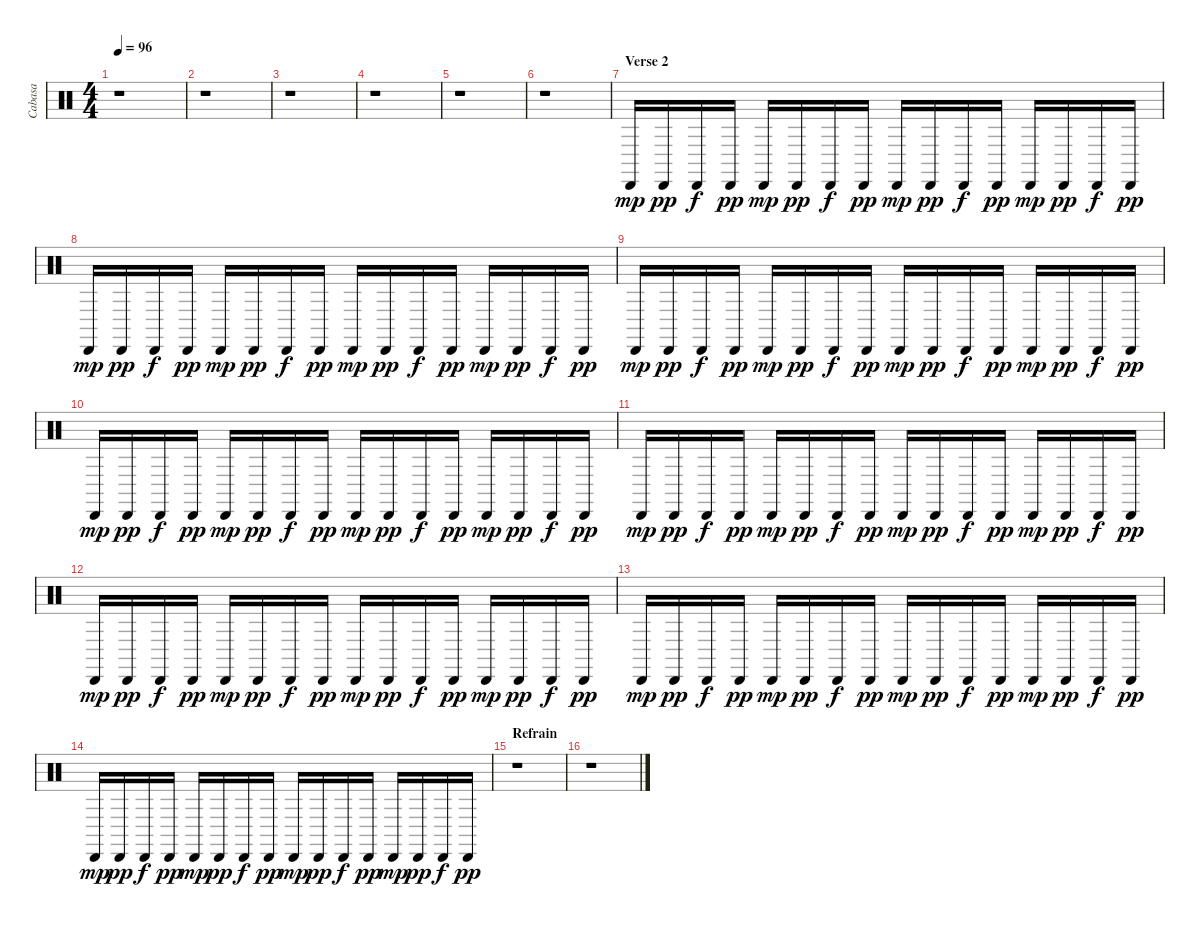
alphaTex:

\track ("Cabasa" "Cabasa") {instrument percussion}
\staff {score}
\articulation defaults
\ts (4 4)
\tempo 96
\clef neutral
\ks c
r.1{dy pp} |
r.1 |
r.1 |
r.1 |
r.1 |
r.1 |
\section ("" "Verse 2")
"Cabasa (hit)".16{dy mp} "Cabasa (hit)".16{dy pp} "Cabasa (hit)".16{dy f} "Cabasa (hit)".16{dy pp} "Cabasa (hit)".16{dy mp} "Cabasa (hit)".16{dy pp} "Cabasa (hit)".16{dy f} "Cabasa (hit)".16{dy pp} "Cabasa (hit)".16{dy mp} "Cabasa (hit)".16{dy pp} "Cabasa (hit)".16{dy f} "Cabasa (hit)".16{dy pp} "Cabasa (hit)".16{dy mp} "Cabasa (hit)".16{dy pp} "Cabasa (hit)".16{dy f} "Cabasa (hit)".16{dy pp} |
"Cabasa (hit)".16{dy mp} "Cabasa (hit)".16{dy pp} "Cabasa (hit)".16{dy f} "Cabasa (hit)".16{dy pp} "Cabasa (hit)".16{dy mp} "Cabasa (hit)".16{dy pp} "Cabasa (hit)".16{dy f} "Cabasa (hit)".16{dy pp} "Cabasa (hit)".16{dy mp} "Cabasa (hit)".16{dy pp} "Cabasa (hit)".16{dy f} "Cabasa (hit)".16{dy pp} "Cabasa (hit)".16{dy mp} "Cabasa (hit)".16{dy pp} "Cabasa (hit)".16{dy f} "Cabasa (hit)".16{dy pp} |
"Cabasa (hit)".16{dy mp} "Cabasa (hit)".16{dy pp} "Cabasa (hit)".16{dy f} "Cabasa (hit)".16{dy pp} "Cabasa (hit)".16{dy mp} "Cabasa (hit)".16{dy pp} "Cabasa (hit)".16{dy f} "Cabasa (hit)".16{dy pp} "Cabasa (hit)".16{dy mp} "Cabasa (hit)".16{dy pp} "Cabasa (hit)".16{dy f} "Cabasa (hit)".16{dy pp} "Cabasa (hit)".16{dy mp} "Cabasa (hit)".16{dy pp} "Cabasa (hit)".16{dy f} "Cabasa (hit)".16{dy pp} |
"Cabasa (hit)".16{dy mp} "Cabasa (hit)".16{dy pp} "Cabasa (hit)".16{dy f} "Cabasa (hit)".16{dy pp} "Cabasa (hit)".16{dy mp} "Cabasa (hit)".16{dy pp} "Cabasa (hit)".16{dy f} "Cabasa (hit)".16{dy pp} "Cabasa (hit)".16{dy mp} "Cabasa (hit)".16{dy pp} "Cabasa (hit)".16{dy f} "Cabasa (hit)".16{dy pp} "Cabasa (hit)".16{dy mp} "Cabasa (hit)".16{dy pp} "Cabasa (hit)".16{dy f} "Cabasa (hit)".16{dy pp} |
"Cabasa (hit)".16{dy mp} "Cabasa (hit)".16{dy pp} "Cabasa (hit)".16{dy f} "Cabasa (hit)".16{dy pp} "Cabasa (hit)".16{dy mp} "Cabasa (hit)".16{dy pp} "Cabasa (hit)".16{dy f} "Cabasa (hit)".16{dy pp} "Cabasa (hit)".16{dy mp} "Cabasa (hit)".16{dy pp} "Cabasa (hit)".16{dy f} "Cabasa (hit)".16{dy pp} "Cabasa (hit)".16{dy mp} "Cabasa (hit)".16{dy pp} "Cabasa (hit)".16{dy f} "Cabasa (hit)".16{dy pp} |
"Cabasa (hit)".16{dy mp} "Cabasa (hit)".16{dy pp} "Cabasa (hit)".16{dy f} "Cabasa (hit)".16{dy pp} "Cabasa (hit)".16{dy mp} "Cabasa (hit)".16{dy pp} "Cabasa (hit)".16{dy f} "Cabasa (hit)".16{dy pp} "Cabasa (hit)".16{dy mp} "Cabasa (hit)".16{dy pp} "Cabasa (hit)".16{dy f} "Cabasa (hit)".16{dy pp} "Cabasa (hit)".16{dy mp} "Cabasa (hit)".16{dy pp} "Cabasa (hit)".16{dy f} "Cabasa (hit)".16{dy pp} |
"Cabasa (hit)".16{dy mp} "Cabasa (hit)".16{dy pp} "Cabasa (hit)".16{dy f} "Cabasa (hit)".16{dy pp} "Cabasa (hit)".16{dy mp} "Cabasa (hit)".16{dy pp} "Cabasa (hit)".16{dy f} "Cabasa (hit)".16{dy pp} "Cabasa (hit)".16{dy mp} "Cabasa (hit)".16{dy pp} "Cabasa (hit)".16{dy f} "Cabasa (hit)".16{dy pp} "Cabasa (hit)".16{dy mp} "Cabasa (hit)".16{dy pp} "Cabasa (hit)".16{dy f} "Cabasa (hit)".16{dy pp} |
"Cabasa (hit)".16{dy mp} "Cabasa (hit)".16{dy pp} "Cabasa (hit)".16{dy f} "Cabasa (hit)".16{dy pp} "Cabasa (hit)".16{dy mp} "Cabasa (hit)".16{dy pp} "Cabasa (hit)".16{dy f} "Cabasa (hit)".16{dy pp} "Cabasa (hit)".16{dy mp} "Cabasa (hit)".16{dy pp} "Cabasa (hit)".16{dy f} "Cabasa (hit)".16{dy pp} "Cabasa (hit)".16{dy mp} "Cabasa (hit)".16{dy pp} "Cabasa (hit)".16{dy f} "Cabasa (hit)".16{dy pp} |
\section ("" "Refrain")
r.1 |
r.1
